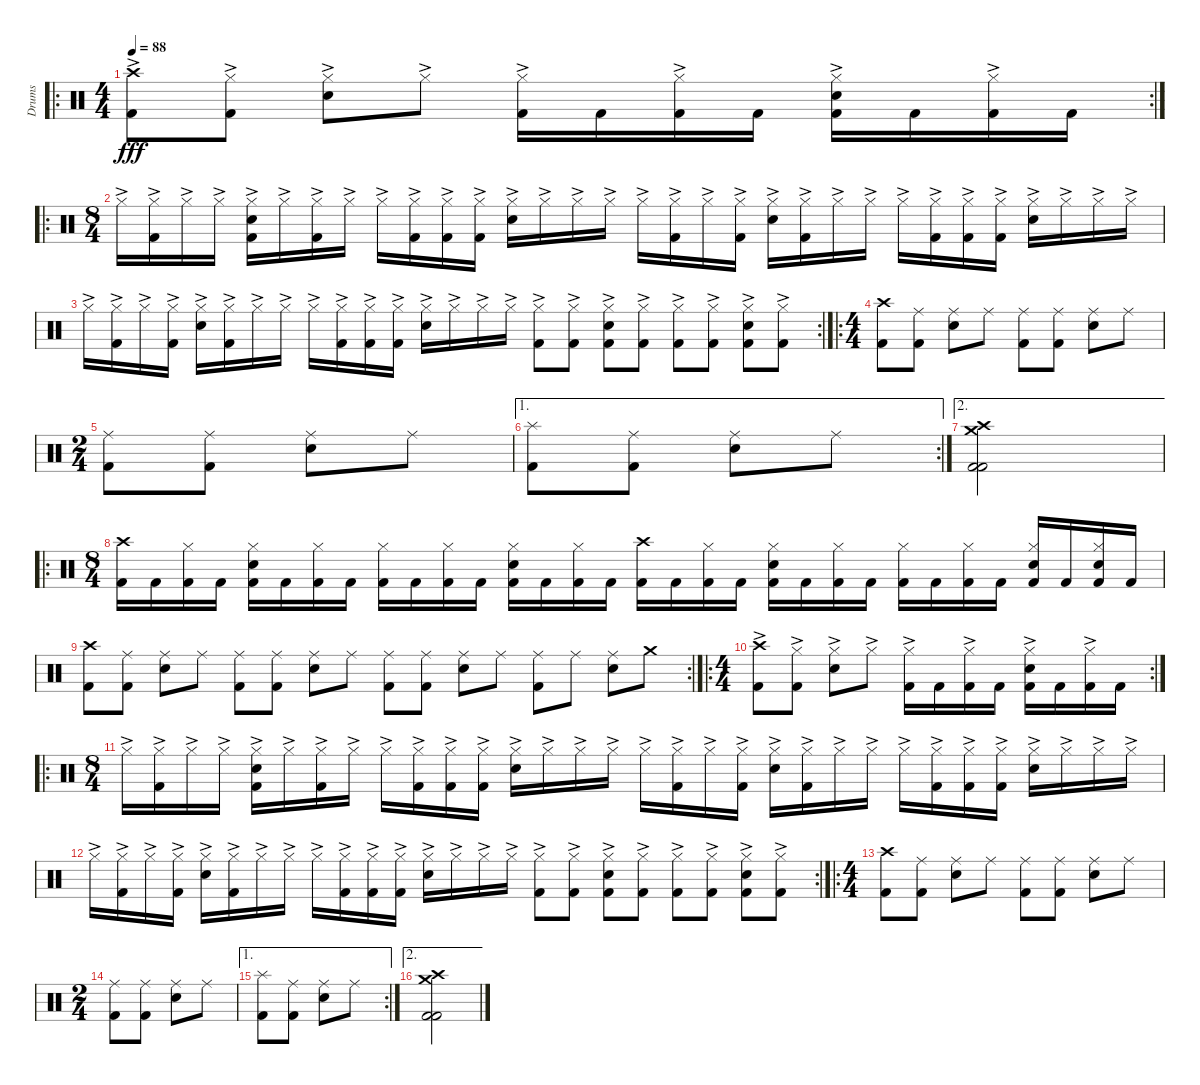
\track ("Drums" "Drums") {instrument percussion}
\staff {score}
\articulation defaults
\ro
\rc 2
\ts (4 4)
\tempo 88
\clef neutral
\ks c
("Crash high (hit)"{ac} "Kick (hit) 2").8{dy fff} ("Hi-Hat (closed)"{ac} "Kick (hit) 2").8 ("Hi-Hat (closed)"{ac} "Electric Snare (hit)").8 "Hi-Hat (closed)"{ac}.8 ("Hi-Hat (closed)"{ac} "Kick (hit) 2").16 "Kick (hit) 2".16 ("Hi-Hat (closed)"{ac} "Kick (hit) 2").16 "Kick (hit) 2".16 ("Hi-Hat (closed)"{ac} "Electric Snare (hit)" "Kick (hit) 2").16 "Kick (hit) 2".16 ("Hi-Hat (closed)"{ac} "Kick (hit) 2").16 "Kick (hit) 2".16 |
\ro
\ts (8 4)
"Hi-Hat (closed)"{ac}.16 ("Hi-Hat (closed)"{ac} "Kick (hit) 2").16 "Hi-Hat (closed)"{ac}.16 "Hi-Hat (closed)"{ac}.16 ("Hi-Hat (closed)"{ac} "Electric Snare (hit)" "Kick (hit) 2").16 "Hi-Hat (closed)"{ac}.16 ("Hi-Hat (closed)"{ac} "Kick (hit) 2").16 "Hi-Hat (closed)"{ac}.16 "Hi-Hat (closed)"{ac}.16 ("Hi-Hat (closed)"{ac} "Kick (hit) 2").16 ("Hi-Hat (closed)"{ac} "Kick (hit) 2").16 ("Hi-Hat (closed)"{ac} "Kick (hit) 2").16 ("Hi-Hat (closed)"{ac} "Electric Snare (hit)").16 "Hi-Hat (closed)"{ac}.16 "Hi-Hat (closed)"{ac}.16 "Hi-Hat (closed)"{ac}.16 "Hi-Hat (closed)"{ac}.16 ("Hi-Hat (closed)"{ac} "Kick (hit) 2").16 "Hi-Hat (closed)"{ac}.16 ("Hi-Hat (closed)"{ac} "Kick (hit) 2").16 ("Hi-Hat (closed)"{ac} "Electric Snare (hit)").16 ("Hi-Hat (closed)"{ac} "Kick (hit) 2").16 "Hi-Hat (closed)"{ac}.16 "Hi-Hat (closed)"{ac}.16 "Hi-Hat (closed)"{ac}.16 ("Hi-Hat (closed)"{ac} "Kick (hit) 2").16 ("Hi-Hat (closed)"{ac} "Kick (hit) 2").16 ("Hi-Hat (closed)"{ac} "Kick (hit) 2").16 ("Hi-Hat (closed)"{ac} "Electric Snare (hit)").16 "Hi-Hat (closed)"{ac}.16 "Hi-Hat (closed)"{ac}.16 "Hi-Hat (closed)"{ac}.16 |
\rc 2 "Hi-Hat (closed)"{ac}.16
("Hi-Hat (closed)"{ac} "Kick (hit) 2").16 "Hi-Hat (closed)"{ac}.16 ("Hi-Hat (closed)"{ac} "Kick (hit) 2").16 ("Hi-Hat (closed)"{ac} "Electric Snare (hit)").16 ("Hi-Hat (closed)"{ac} "Kick (hit) 2").16 "Hi-Hat (closed)"{ac}.16 "Hi-Hat (closed)"{ac}.16 "Hi-Hat (closed)"{ac}.16 ("Hi-Hat (closed)"{ac} "Kick (hit) 2").16 ("Hi-Hat (closed)"{ac} "Kick (hit) 2").16 ("Hi-Hat (closed)"{ac} "Kick (hit) 2").16 ("Hi-Hat (closed)"{ac} "Electric Snare (hit)").16 "Hi-Hat (closed)"{ac}.16 "Hi-Hat (closed)"{ac}.16 "Hi-Hat (closed)"{ac}.16 ("Hi-Hat (closed)"{ac} "Kick (hit) 2").8 ("Hi-Hat (closed)"{ac} "Kick (hit) 2").8 ("Hi-Hat (closed)"{ac} "Electric Snare (hit)" "Kick (hit) 2").8 ("Hi-Hat (closed)"{ac} "Kick (hit) 2").8 ("Hi-Hat (closed)"{ac} "Kick (hit) 2").8 ("Hi-Hat (closed)"{ac} "Kick (hit) 2").8 ("Hi-Hat (closed)"{ac} "Electric Snare (hit)" "Kick (hit) 2").8 ("Hi-Hat (closed)"{ac} "Kick (hit) 2").8 |
\ro
\ts (4 4)
("Crash high (hit)" "Kick (hit) 2").8 ("Ride (middle)" "Kick (hit) 2").8 ("Ride (middle)" "Electric Snare (hit)").8 "Ride (middle)".8 ("Ride (middle)" "Kick (hit) 2").8 ("Ride (middle)" "Kick (hit) 2").8 ("Ride (middle)" "Electric Snare (hit)").8 "Ride (middle)".8 |
\ts (2 4)
("Ride (middle)" "Kick (hit) 2").8 ("Ride (middle)" "Kick (hit) 2").8 ("Ride (middle)" "Electric Snare (hit)").8 "Ride (middle)".8 |
\ae 1
\rc 2
("Splash (hit)" "Kick (hit) 2").8 ("Ride (middle)" "Kick (hit) 2").8 ("Ride (middle)" "Electric Snare (hit)").8 "Ride (middle)".8 |
\ae 2
("Crash high (hit)" "Crash medium (hit)" "Kick (hit) 2" "Kick (hit) 2").2 |
\ro
\ts (8 4)
("Crash high (hit)" "Kick (hit) 2").16 "Kick (hit) 2".16 ("Hi-Hat (closed)" "Kick (hit) 2").16 "Kick (hit) 2".16 ("Hi-Hat (closed)" "Electric Snare (hit)" "Kick (hit) 2").16 "Kick (hit) 2".16 ("Hi-Hat (closed)" "Kick (hit) 2").16 "Kick (hit) 2".16 ("Hi-Hat (closed)" "Kick (hit) 2").16 "Kick (hit) 2".16 ("Hi-Hat (closed)" "Kick (hit) 2").16 "Kick (hit) 2".16 ("Hi-Hat (closed)" "Electric Snare (hit)" "Kick (hit) 2").16 "Kick (hit) 2".16 ("Hi-Hat (closed)" "Kick (hit) 2").16 "Kick (hit) 2".16 ("Crash high (hit)" "Kick (hit) 2").16 "Kick (hit) 2".16 ("Hi-Hat (closed)" "Kick (hit) 2").16 "Kick (hit) 2".16 ("Hi-Hat (closed)" "Electric Snare (hit)" "Kick (hit) 2").16 "Kick (hit) 2".16 ("Hi-Hat (closed)" "Kick (hit) 2").16 "Kick (hit) 2".16 ("Hi-Hat (closed)" "Kick (hit) 2").16 "Kick (hit) 2".16 ("Hi-Hat (closed)" "Kick (hit) 2").16 "Kick (hit) 2".16 ("Hi-Hat (closed)" "Electric Snare (hit)" "Kick (hit) 2").16 "Kick (hit) 2".16 ("Hi-Hat (closed)" "Electric Snare (hit)" "Kick (hit) 2").16 "Kick (hit) 2".16 |
\rc 2
("Crash high (hit)" "Kick (hit) 2").8 ("Ride (middle)" "Kick (hit) 2").8 ("Ride (middle)" "Electric Snare (hit)").8 "Ride (middle)".8 ("Ride (middle)" "Kick (hit) 2").8 ("Ride (middle)" "Kick (hit) 2").8 ("Ride (middle)" "Electric Snare (hit)").8 "Ride (middle)".8 ("Ride (middle)" "Kick (hit) 2").8 ("Ride (middle)" "Kick (hit) 2").8 ("Ride (middle)" "Electric Snare (hit)").8 "Ride (middle)".8 ("Ride (middle)" "Kick (hit) 2").8 "Ride (middle)".8 ("Ride (middle)" "Electric Snare (hit)").8 "Crash medium (hit)".8 |
\ro
\rc 2
\ts (4 4)
("Crash high (hit)"{ac} "Kick (hit) 2").8 ("Hi-Hat (closed)"{ac} "Kick (hit) 2").8 ("Hi-Hat (closed)"{ac} "Electric Snare (hit)").8 "Hi-Hat (closed)"{ac}.8 ("Hi-Hat (closed)"{ac} "Kick (hit) 2").16 "Kick (hit) 2".16 ("Hi-Hat (closed)"{ac} "Kick (hit) 2").16 "Kick (hit) 2".16 ("Hi-Hat (closed)"{ac} "Electric Snare (hit)" "Kick (hit) 2").16 "Kick (hit) 2".16 ("Hi-Hat (closed)"{ac} "Kick (hit) 2").16 "Kick (hit) 2".16 |
\ro
\ts (8 4)
"Hi-Hat (closed)"{ac}.16 ("Hi-Hat (closed)"{ac} "Kick (hit) 2").16 "Hi-Hat (closed)"{ac}.16 "Hi-Hat (closed)"{ac}.16 ("Hi-Hat (closed)"{ac} "Electric Snare (hit)" "Kick (hit) 2").16 "Hi-Hat (closed)"{ac}.16 ("Hi-Hat (closed)"{ac} "Kick (hit) 2").16 "Hi-Hat (closed)"{ac}.16 "Hi-Hat (closed)"{ac}.16 ("Hi-Hat (closed)"{ac} "Kick (hit) 2").16 ("Hi-Hat (closed)"{ac} "Kick (hit) 2").16 ("Hi-Hat (closed)"{ac} "Kick (hit) 2").16 ("Hi-Hat (closed)"{ac} "Electric Snare (hit)").16 "Hi-Hat (closed)"{ac}.16 "Hi-Hat (closed)"{ac}.16 "Hi-Hat (closed)"{ac}.16 "Hi-Hat (closed)"{ac}.16 ("Hi-Hat (closed)"{ac} "Kick (hit) 2").16 "Hi-Hat (closed)"{ac}.16 ("Hi-Hat (closed)"{ac} "Kick (hit) 2").16 ("Hi-Hat (closed)"{ac} "Electric Snare (hit)").16 ("Hi-Hat (closed)"{ac} "Kick (hit) 2").16 "Hi-Hat (closed)"{ac}.16 "Hi-Hat (closed)"{ac}.16 "Hi-Hat (closed)"{ac}.16 ("Hi-Hat (closed)"{ac} "Kick (hit) 2").16 ("Hi-Hat (closed)"{ac} "Kick (hit) 2").16 ("Hi-Hat (closed)"{ac} "Kick (hit) 2").16 ("Hi-Hat (closed)"{ac} "Electric Snare (hit)").16 "Hi-Hat (closed)"{ac}.16 "Hi-Hat (closed)"{ac}.16 "Hi-Hat (closed)"{ac}.16 |
\rc 2 "Hi-Hat (closed)"{ac}.16
("Hi-Hat (closed)"{ac} "Kick (hit) 2").16 "Hi-Hat (closed)"{ac}.16 ("Hi-Hat (closed)"{ac} "Kick (hit) 2").16 ("Hi-Hat (closed)"{ac} "Electric Snare (hit)").16 ("Hi-Hat (closed)"{ac} "Kick (hit) 2").16 "Hi-Hat (closed)"{ac}.16 "Hi-Hat (closed)"{ac}.16 "Hi-Hat (closed)"{ac}.16 ("Hi-Hat (closed)"{ac} "Kick (hit) 2").16 ("Hi-Hat (closed)"{ac} "Kick (hit) 2").16 ("Hi-Hat (closed)"{ac} "Kick (hit) 2").16 ("Hi-Hat (closed)"{ac} "Electric Snare (hit)").16 "Hi-Hat (closed)"{ac}.16 "Hi-Hat (closed)"{ac}.16 "Hi-Hat (closed)"{ac}.16 ("Hi-Hat (closed)"{ac} "Kick (hit) 2").8 ("Hi-Hat (closed)"{ac} "Kick (hit) 2").8 ("Hi-Hat (closed)"{ac} "Electric Snare (hit)" "Kick (hit) 2").8 ("Hi-Hat (closed)"{ac} "Kick (hit) 2").8 ("Hi-Hat (closed)"{ac} "Kick (hit) 2").8 ("Hi-Hat (closed)"{ac} "Kick (hit) 2").8 ("Hi-Hat (closed)"{ac} "Electric Snare (hit)" "Kick (hit) 2").8 ("Hi-Hat (closed)"{ac} "Kick (hit) 2").8 |
\ro
\ts (4 4)
("Crash high (hit)" "Kick (hit) 2").8 ("Ride (middle)" "Kick (hit) 2").8 ("Ride (middle)" "Electric Snare (hit)").8 "Ride (middle)".8 ("Ride (middle)" "Kick (hit) 2").8 ("Ride (middle)" "Kick (hit) 2").8 ("Ride (middle)" "Electric Snare (hit)").8 "Ride (middle)".8 |
\ts (2 4)
("Ride (middle)" "Kick (hit) 2").8 ("Ride (middle)" "Kick (hit) 2").8 ("Ride (middle)" "Electric Snare (hit)").8 "Ride (middle)".8 |
\ae 1
\rc 2
("Splash (hit)" "Kick (hit) 2").8 ("Ride (middle)" "Kick (hit) 2").8 ("Ride (middle)" "Electric Snare (hit)").8 "Ride (middle)".8 |
\ae 2
("Crash high (hit)" "Crash medium (hit)" "Kick (hit) 2" "Kick (hit) 2").2
